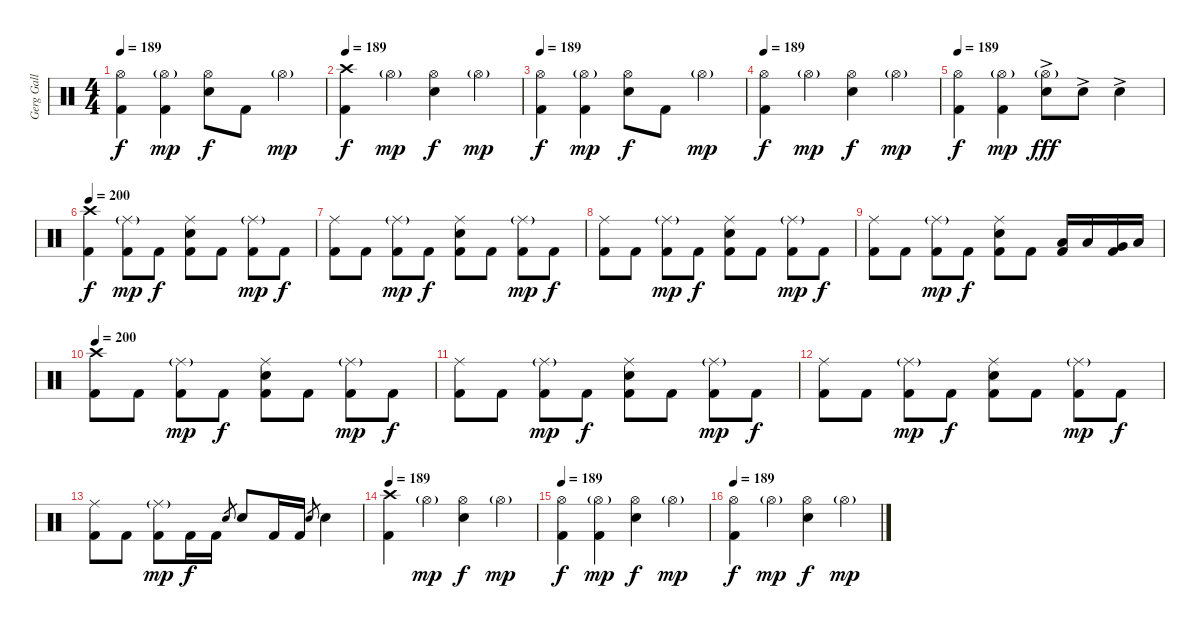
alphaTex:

\track ("Gerg Gall (Drums)" "Gerg Gall ") {instrument percussion}
\staff {score}
\articulation defaults
\ts (4 4)
\tempo 189
\clef neutral
\ks c
("Hi-Hat (open)" "Kick (hit) 2").4{dy f} ("Hi-Hat (open)"{g} "Kick (hit) 2").4{dy mp} ("Hi-Hat (open)" "Snare (hit) 2").8{dy f} "Kick (hit) 2".8 "Hi-Hat (open)"{g}.4{dy mp} |
\tempo 189
("Crash high (hit)" "Kick (hit) 2").4{dy f} "Hi-Hat (open)"{g}.4{dy mp} ("Hi-Hat (open)" "Snare (hit) 2").4{dy f} "Hi-Hat (open)"{g}.4{dy mp} |
\tempo 189
("Hi-Hat (open)" "Kick (hit) 2").4{dy f} ("Hi-Hat (open)"{g} "Kick (hit) 2").4{dy mp} ("Hi-Hat (open)" "Snare (hit) 2").8{dy f} "Kick (hit) 2".8 "Hi-Hat (open)"{g}.4{dy mp} |
\tempo 189
("Hi-Hat (open)" "Kick (hit) 2").4{dy f} "Hi-Hat (open)"{g}.4{dy mp} ("Hi-Hat (open)" "Snare (hit) 2").4{dy f} "Hi-Hat (open)"{g}.4{dy mp} |
\tempo 189
("Hi-Hat (open)" "Kick (hit) 2").4{dy f} ("Hi-Hat (open)"{g} "Kick (hit) 2").4{dy mp} ("Hi-Hat (open)"{g} "Snare (hit) 2"{ac}).8{dy fff} "Snare (hit) 2"{ac}.8 "Snare (hit) 2"{ac}.4 |
\tempo 200
("Crash high (hit)" "Kick (hit) 2").4{dy f} ("Ride (middle)"{g} "Kick (hit) 2").8{dy mp} "Kick (hit) 2".8{dy f} ("Snare (hit) 2" "Ride (middle)" "Kick (hit) 2").8 "Kick (hit) 2".8 ("Ride (middle)"{g} "Kick (hit) 2").8{dy mp} "Kick (hit) 2".8{dy f} |
("Ride (middle)" "Kick (hit) 2").8 "Kick (hit) 2".8 ("Ride (middle)"{g} "Kick (hit) 2").8{dy mp} "Kick (hit) 2".8{dy f} ("Snare (hit) 2" "Ride (middle)" "Kick (hit) 2").8 "Kick (hit) 2".8 ("Ride (middle)"{g} "Kick (hit) 2").8{dy mp} "Kick (hit) 2".8{dy f} |
("Ride (middle)" "Kick (hit) 2").8 "Kick (hit) 2".8 ("Ride (middle)"{g} "Kick (hit) 2").8{dy mp} "Kick (hit) 2".8{dy f} ("Snare (hit) 2" "Ride (middle)" "Kick (hit) 2").8 "Kick (hit) 2".8 ("Ride (middle)"{g} "Kick (hit) 2").8{dy mp} "Kick (hit) 2".8{dy f} |
("Ride (middle)" "Kick (hit) 2").8 "Kick (hit) 2".8 ("Ride (middle)"{g} "Kick (hit) 2").8{dy mp} "Kick (hit) 2".8{dy f} ("Snare (hit) 2" "Ride (middle)" "Kick (hit) 2").8 "Kick (hit) 2".8 ("Low Tom (hit)" "Kick (hit) 2").16 "Low Tom (hit)".16 ("Very Low Tom (hit)" "Kick (hit) 2").16 "Low Floor Tom (hit)".16 |
\tempo 200
("Crash high (hit)" "Kick (hit) 2").8 "Kick (hit) 2".8 ("Ride (middle)"{g} "Kick (hit) 2").8{dy mp} "Kick (hit) 2".8{dy f} ("Snare (hit) 2" "Ride (middle)" "Kick (hit) 2").8 "Kick (hit) 2".8 ("Ride (middle)"{g} "Kick (hit) 2").8{dy mp} "Kick (hit) 2".8{dy f} |
("Ride (middle)" "Kick (hit) 2").8 "Kick (hit) 2".8 ("Ride (middle)"{g} "Kick (hit) 2").8{dy mp} "Kick (hit) 2".8{dy f} ("Snare (hit) 2" "Ride (middle)" "Kick (hit) 2").8 "Kick (hit) 2".8 ("Ride (middle)"{g} "Kick (hit) 2").8{dy mp} "Kick (hit) 2".8{dy f} |
("Ride (middle)" "Kick (hit) 2").8 "Kick (hit) 2".8 ("Ride (middle)"{g} "Kick (hit) 2").8{dy mp} "Kick (hit) 2".8{dy f} ("Snare (hit) 2" "Ride (middle)" "Kick (hit) 2").8 "Kick (hit) 2".8 ("Ride (middle)"{g} "Kick (hit) 2").8{dy mp} "Kick (hit) 2".8{dy f} |
("Ride (middle)" "Kick (hit) 2").8 "Kick (hit) 2".8 ("Ride (middle)"{g} "Kick (hit) 2").8{dy mp} "Kick (hit) 2".16{dy f} "Kick (hit) 2".16 "Snare (hit) 2".8{gr} "Snare (hit) 2".8 "Kick (hit) 2".16 "Kick (hit) 2".16 "Snare (hit) 2".8{gr} "Snare (hit) 2".4 |
\tempo 189
("Crash high (hit)" "Kick (hit) 2").4 "Hi-Hat (open)"{g}.4{dy mp} ("Hi-Hat (open)" "Snare (hit) 2").4{dy f} "Hi-Hat (open)"{g}.4{dy mp} |
\tempo 189
("Hi-Hat (open)" "Kick (hit) 2").4{dy f} ("Hi-Hat (open)"{g} "Kick (hit) 2").4{dy mp} ("Hi-Hat (open)" "Snare (hit) 2").4{dy f} "Hi-Hat (open)"{g}.4{dy mp} |
\tempo 189
("Hi-Hat (open)" "Kick (hit) 2").4{dy f} "Hi-Hat (open)"{g}.4{dy mp} ("Hi-Hat (open)" "Snare (hit) 2").4{dy f} "Hi-Hat (open)"{g}.4{dy mp}
